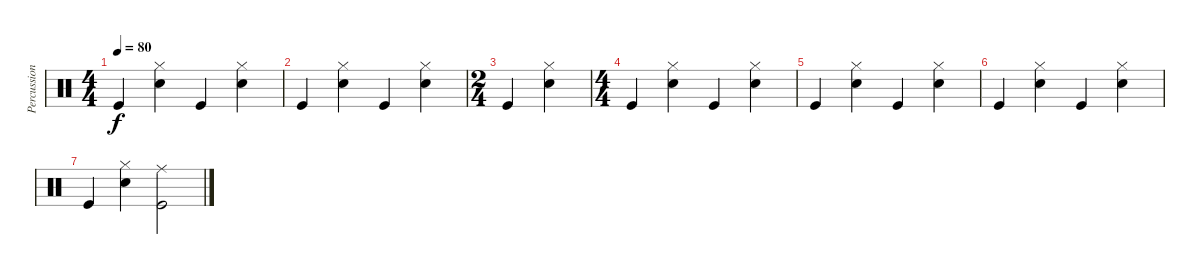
\track ("Percussion" "Percussion") {instrument percussion}
\staff {score}
\articulation defaults
\ts (4 4)
\tempo 80
\clef neutral
\ks c "Kick (hit)".4{dy f}
("Hi-Hat (closed)" "Snare (hit) 2").4 "Kick (hit)".4 ("Hi-Hat (closed)" "Snare (hit) 2").4 |
"Kick (hit)".4 ("Hi-Hat (closed)" "Snare (hit) 2").4 "Kick (hit)".4 ("Hi-Hat (closed)" "Snare (hit) 2").4 |
\ts (2 4)
"Kick (hit)".4 ("Hi-Hat (closed)" "Snare (hit) 2").4 |
\ts (4 4)
"Kick (hit)".4 ("Hi-Hat (closed)" "Snare (hit) 2").4 "Kick (hit)".4 ("Hi-Hat (closed)" "Snare (hit) 2").4 |
"Kick (hit)".4 ("Hi-Hat (closed)" "Snare (hit) 2").4 "Kick (hit)".4 ("Hi-Hat (closed)" "Snare (hit) 2").4 |
"Kick (hit)".4 ("Hi-Hat (closed)" "Snare (hit) 2").4 "Kick (hit)".4 ("Hi-Hat (closed)" "Snare (hit) 2").4 |
"Kick (hit)".4 ("Hi-Hat (closed)" "Snare (hit) 2").4 ("Ride (middle)" "Kick (hit)").2
